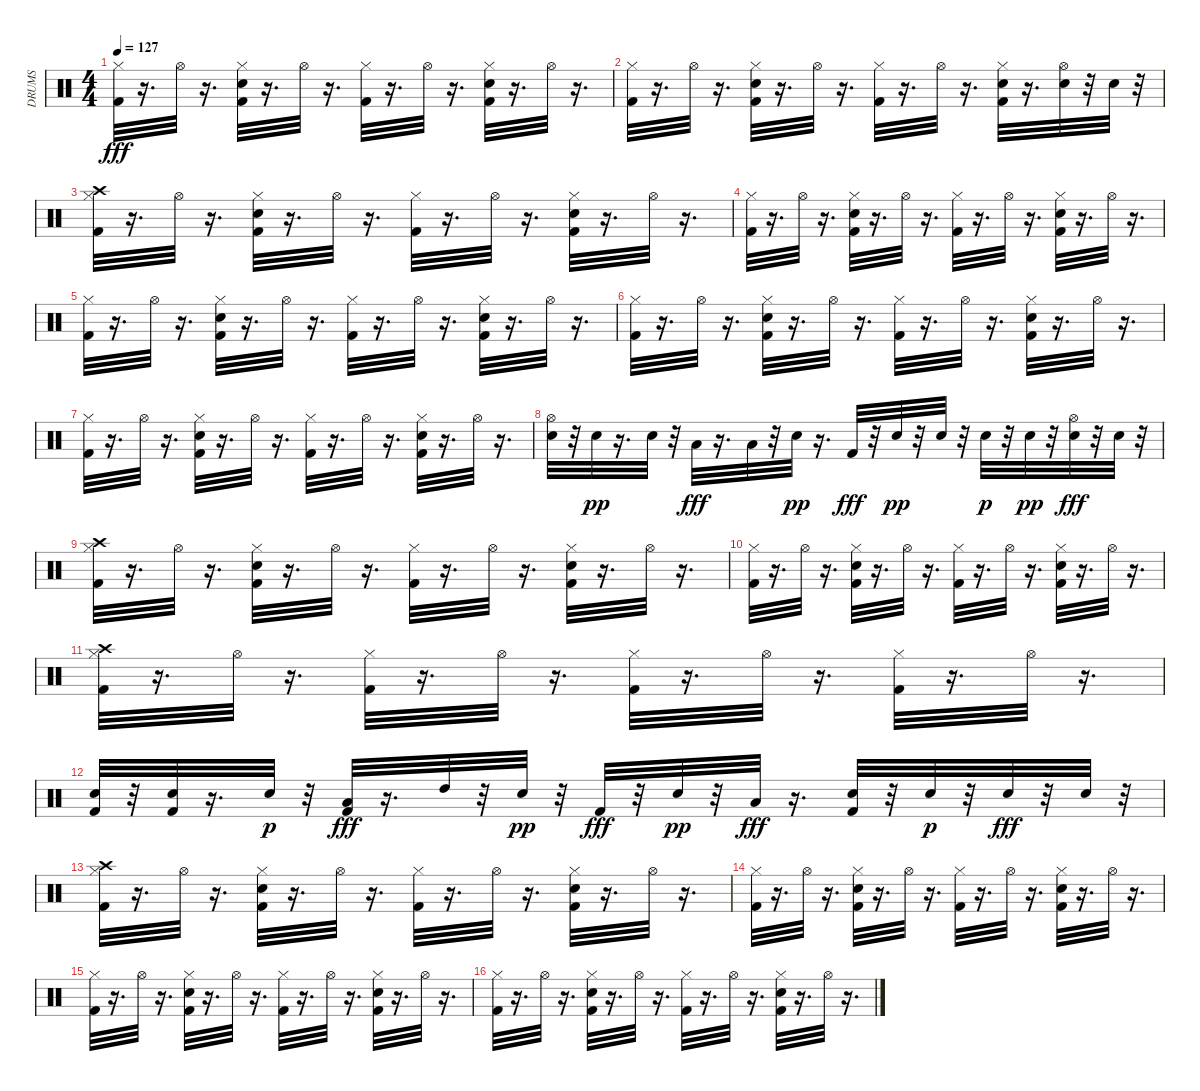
\track ("DRUMS" "DRUMS") {instrument percussion}
\staff {score}
\articulation defaults
\ts (4 4)
\tempo 127
\clef neutral
\ks c
("Hi-Hat (closed)" "Kick (hit) 2").32{dy fff} r.16{d} "Hi-Hat (open)".32 r.16{d} ("Kick (hit) 2" "Hi-Hat (closed)" "Snare (hit) 2").32 r.16{d} "Hi-Hat (open)".32 r.16{d} ("Hi-Hat (closed)" "Kick (hit) 2").32 r.16{d} "Hi-Hat (open)".32 r.16{d} ("Kick (hit) 2" "Hi-Hat (closed)" "Snare (hit) 2").32 r.16{d} "Hi-Hat (open)".32 r.16{d} |
("Hi-Hat (closed)" "Kick (hit) 2").32 r.16{d} "Hi-Hat (open)".32 r.16{d} ("Hi-Hat (closed)" "Snare (hit) 2" "Kick (hit) 2").32 r.16{d} "Hi-Hat (open)".32 r.16{d} ("Hi-Hat (closed)" "Kick (hit) 2").32 r.16{d} "Hi-Hat (open)".32 r.16{d} ("Hi-Hat (closed)" "Snare (hit) 2" "Kick (hit) 2").32 r.16{d} ("Hi-Hat (open)" "Snare (hit) 2").32 r.32 "Snare (hit) 2".32 r.32 |
("Crash high (hit)" "Hi-Hat (closed)" "Kick (hit) 2").32 r.16{d} "Hi-Hat (open)".32 r.16{d} ("Hi-Hat (closed)" "Snare (hit) 2" "Kick (hit) 2").32 r.16{d} "Hi-Hat (open)".32 r.16{d} ("Hi-Hat (closed)" "Kick (hit) 2").32 r.16{d} "Hi-Hat (open)".32 r.16{d} ("Hi-Hat (closed)" "Snare (hit) 2" "Kick (hit) 2").32 r.16{d} "Hi-Hat (open)".32 r.16{d} |
("Hi-Hat (closed)" "Kick (hit) 2").32 r.16{d} "Hi-Hat (open)".32 r.16{d} ("Kick (hit) 2" "Hi-Hat (closed)" "Snare (hit) 2").32 r.16{d} "Hi-Hat (open)".32 r.16{d} ("Hi-Hat (closed)" "Kick (hit) 2").32 r.16{d} "Hi-Hat (open)".32 r.16{d} ("Hi-Hat (closed)" "Snare (hit) 2" "Kick (hit) 2").32 r.16{d} "Hi-Hat (open)".32 r.16{d} |
("Hi-Hat (closed)" "Kick (hit) 2").32 r.16{d} "Hi-Hat (open)".32 r.16{d} ("Hi-Hat (closed)" "Snare (hit) 2" "Kick (hit) 2").32 r.16{d} "Hi-Hat (open)".32 r.16{d} ("Hi-Hat (closed)" "Kick (hit) 2").32 r.16{d} "Hi-Hat (open)".32 r.16{d} ("Hi-Hat (closed)" "Snare (hit) 2" "Kick (hit) 2").32 r.16{d} "Hi-Hat (open)".32 r.16{d} |
("Hi-Hat (closed)" "Kick (hit) 2").32 r.16{d} "Hi-Hat (open)".32 r.16{d} ("Hi-Hat (closed)" "Snare (hit) 2" "Kick (hit) 2").32 r.16{d} "Hi-Hat (open)".32 r.16{d} ("Hi-Hat (closed)" "Kick (hit) 2").32 r.16{d} "Hi-Hat (open)".32 r.16{d} ("Hi-Hat (closed)" "Snare (hit) 2" "Kick (hit) 2").32 r.16{d} "Hi-Hat (open)".32 r.16{d} |
("Hi-Hat (closed)" "Kick (hit) 2").32 r.16{d} "Hi-Hat (open)".32 r.16{d} ("Kick (hit) 2" "Hi-Hat (closed)" "Snare (hit) 2").32 r.16{d} "Hi-Hat (open)".32 r.16{d} ("Hi-Hat (closed)" "Kick (hit) 2").32 r.16{d} "Hi-Hat (open)".32 r.16{d} ("Hi-Hat (closed)" "Snare (hit) 2" "Kick (hit) 2").32 r.16{d} "Hi-Hat (open)".32 r.16{d} |
("Hi-Hat (open)" "Snare (hit) 2").32 r.32 "Snare (hit) 2".32{dy pp} r.16{d} "Snare (hit) 2".32 r.32 "Low Floor Tom (hit)".32{dy fff} r.16{d} "Low Tom (hit)".32 r.32 "Snare (hit) 2".32{dy pp} r.16{d} "Kick (hit) 2".32{dy fff} r.32 "Snare (hit) 2".32{dy pp} r.32 "Snare (hit) 2".32 r.32 "Snare (hit) 2".32{dy p} r.32 "Snare (hit) 2".32{dy pp} r.32 ("Hi-Hat (open)" "Snare (hit) 2").32{dy fff} r.32 "Snare (hit) 2".32 r.32 |
("Crash high (hit)" "Hi-Hat (closed)" "Kick (hit) 2").32 r.16{d} "Hi-Hat (open)".32 r.16{d} ("Hi-Hat (closed)" "Snare (hit) 2" "Kick (hit) 2").32 r.16{d} "Hi-Hat (open)".32 r.16{d} ("Hi-Hat (closed)" "Kick (hit) 2").32 r.16{d} "Hi-Hat (open)".32 r.16{d} ("Kick (hit) 2" "Hi-Hat (closed)" "Snare (hit) 2").32 r.16{d} "Hi-Hat (open)".32 r.16{d} |
("Hi-Hat (closed)" "Kick (hit) 2").32 r.16{d} "Hi-Hat (open)".32 r.16{d} ("Hi-Hat (closed)" "Snare (hit) 2" "Kick (hit) 2").32 r.16{d} "Hi-Hat (open)".32 r.16{d} ("Hi-Hat (closed)" "Kick (hit) 2").32 r.16{d} "Hi-Hat (open)".32 r.16{d} ("Hi-Hat (closed)" "Snare (hit) 2" "Kick (hit) 2").32 r.16{d} "Hi-Hat (open)".32 r.16{d} |
("Crash high (hit)" "Hi-Hat (closed)" "Kick (hit) 2").32 r.16{d} "Hi-Hat (open)".32 r.16{d} ("Kick (hit) 2" "Hi-Hat (closed)").32 r.16{d} "Hi-Hat (open)".32 r.16{d} ("Kick (hit) 2" "Hi-Hat (closed)").32 r.16{d} "Hi-Hat (open)".32 r.16{d} ("Hi-Hat (closed)" "Kick (hit) 2").32 r.16{d} "Hi-Hat (open)".32 r.16{d} |
("Snare (hit) 2" "Kick (hit) 2").32 r.32 ("Snare (hit) 2" "Kick (hit) 2").32 r.16{d} "Snare (hit) 2".32{dy p} r.32 ("Kick (hit) 2" "Low Tom (hit)").32{dy fff} r.16{d} "High Tom (hit)".32 r.32 "Snare (hit) 2".32{dy pp} r.32 "Kick (hit) 2".32{dy fff} r.32 "Snare (hit) 2".32{dy pp} r.32 "Low Floor Tom (hit)".32{dy fff} r.16{d} ("Snare (hit) 2" "Kick (hit) 2").32 r.32 "Snare (hit) 2".32{dy p} r.32 "Snare (hit) 2".32{dy fff} r.32 "Snare (hit) 2".32 r.32 |
("Crash high (hit)" "Hi-Hat (closed)" "Kick (hit) 2").32 r.16{d} "Hi-Hat (open)".32 r.16{d} ("Hi-Hat (closed)" "Snare (hit) 2" "Kick (hit) 2").32 r.16{d} "Hi-Hat (open)".32 r.16{d} ("Hi-Hat (closed)" "Kick (hit) 2").32 r.16{d} "Hi-Hat (open)".32 r.16{d} ("Kick (hit) 2" "Hi-Hat (closed)" "Snare (hit) 2").32 r.16{d} "Hi-Hat (open)".32 r.16{d} |
("Hi-Hat (closed)" "Kick (hit) 2").32 r.16{d} "Hi-Hat (open)".32 r.16{d} ("Hi-Hat (closed)" "Snare (hit) 2" "Kick (hit) 2").32 r.16{d} "Hi-Hat (open)".32 r.16{d} ("Kick (hit) 2" "Hi-Hat (closed)").32 r.16{d} "Hi-Hat (open)".32 r.16{d} ("Hi-Hat (closed)" "Snare (hit) 2" "Kick (hit) 2").32 r.16{d} "Hi-Hat (open)".32 r.16{d} |
("Hi-Hat (closed)" "Kick (hit) 2").32 r.16{d} "Hi-Hat (open)".32 r.16{d} ("Kick (hit) 2" "Hi-Hat (closed)" "Snare (hit) 2").32 r.16{d} "Hi-Hat (open)".32 r.16{d} ("Kick (hit) 2" "Hi-Hat (closed)").32 r.16{d} "Hi-Hat (open)".32 r.16{d} ("Kick (hit) 2" "Hi-Hat (closed)" "Snare (hit) 2").32 r.16{d} "Hi-Hat (open)".32 r.16{d} |
("Hi-Hat (closed)" "Kick (hit) 2").32 r.16{d} "Hi-Hat (open)".32 r.16{d} ("Hi-Hat (closed)" "Snare (hit) 2" "Kick (hit) 2").32 r.16{d} "Hi-Hat (open)".32 r.16{d} ("Hi-Hat (closed)" "Kick (hit) 2").32 r.16{d} "Hi-Hat (open)".32 r.16{d} ("Snare (hit) 2" "Kick (hit) 2" "Hi-Hat (closed)").32 r.16{d} "Hi-Hat (open)".32 r.16{d}
